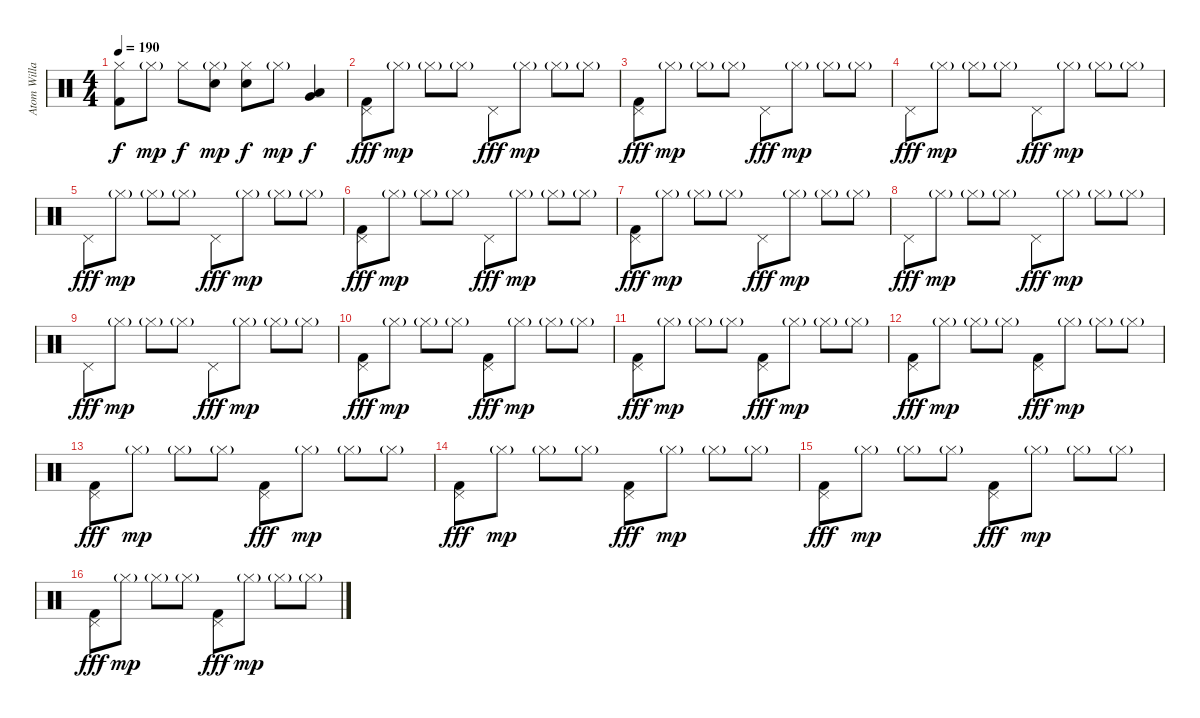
\track ("Atom Willard" "Atom Willa") {instrument percussion}
\staff {score}
\articulation defaults
\ts (4 4)
\tempo 190
\clef neutral
\ks c
("Hi-Hat (closed)" "Kick (hit) 2").8{dy f} "Hi-Hat (closed)"{g}.8{dy mp} "Hi-Hat (closed)".8{dy f} ("Hi-Hat (closed)"{g} "Electric Snare (hit)").8{dy mp} ("Hi-Hat (closed)" "Electric Snare (hit)").8{dy f} "Hi-Hat (closed)"{g}.8{dy mp} ("Very Low Tom (hit)" "Low Floor Tom (hit)").4{dy f} |
("Pedal Hi-Hat (hit)" "Kick (hit) 2").8{dy fff} "Hi-Hat (closed)"{g}.8{dy mp} "Hi-Hat (closed)"{g}.8 "Hi-Hat (closed)"{g}.8 "Pedal Hi-Hat (hit)".8{dy fff} "Hi-Hat (closed)"{g}.8{dy mp} "Hi-Hat (closed)"{g}.8 "Hi-Hat (closed)"{g}.8 |
("Pedal Hi-Hat (hit)" "Kick (hit) 2").8{dy fff} "Hi-Hat (closed)"{g}.8{dy mp} "Hi-Hat (closed)"{g}.8 "Hi-Hat (closed)"{g}.8 "Pedal Hi-Hat (hit)".8{dy fff} "Hi-Hat (closed)"{g}.8{dy mp} "Hi-Hat (closed)"{g}.8 "Hi-Hat (closed)"{g}.8 |
"Pedal Hi-Hat (hit)".8{dy fff} "Hi-Hat (closed)"{g}.8{dy mp} "Hi-Hat (closed)"{g}.8 "Hi-Hat (closed)"{g}.8 "Pedal Hi-Hat (hit)".8{dy fff} "Hi-Hat (closed)"{g}.8{dy mp} "Hi-Hat (closed)"{g}.8 "Hi-Hat (closed)"{g}.8 |
"Pedal Hi-Hat (hit)".8{dy fff} "Hi-Hat (closed)"{g}.8{dy mp} "Hi-Hat (closed)"{g}.8 "Hi-Hat (closed)"{g}.8 "Pedal Hi-Hat (hit)".8{dy fff} "Hi-Hat (closed)"{g}.8{dy mp} "Hi-Hat (closed)"{g}.8 "Hi-Hat (closed)"{g}.8 |
("Pedal Hi-Hat (hit)" "Kick (hit) 2").8{dy fff} "Hi-Hat (closed)"{g}.8{dy mp} "Hi-Hat (closed)"{g}.8 "Hi-Hat (closed)"{g}.8 "Pedal Hi-Hat (hit)".8{dy fff} "Hi-Hat (closed)"{g}.8{dy mp} "Hi-Hat (closed)"{g}.8 "Hi-Hat (closed)"{g}.8 |
("Pedal Hi-Hat (hit)" "Kick (hit) 2").8{dy fff} "Hi-Hat (closed)"{g}.8{dy mp} "Hi-Hat (closed)"{g}.8 "Hi-Hat (closed)"{g}.8 "Pedal Hi-Hat (hit)".8{dy fff} "Hi-Hat (closed)"{g}.8{dy mp} "Hi-Hat (closed)"{g}.8 "Hi-Hat (closed)"{g}.8 |
"Pedal Hi-Hat (hit)".8{dy fff} "Hi-Hat (closed)"{g}.8{dy mp} "Hi-Hat (closed)"{g}.8 "Hi-Hat (closed)"{g}.8 "Pedal Hi-Hat (hit)".8{dy fff} "Hi-Hat (closed)"{g}.8{dy mp} "Hi-Hat (closed)"{g}.8 "Hi-Hat (closed)"{g}.8 |
"Pedal Hi-Hat (hit)".8{dy fff} "Hi-Hat (closed)"{g}.8{dy mp} "Hi-Hat (closed)"{g}.8 "Hi-Hat (closed)"{g}.8 "Pedal Hi-Hat (hit)".8{dy fff} "Hi-Hat (closed)"{g}.8{dy mp} "Hi-Hat (closed)"{g}.8 "Hi-Hat (closed)"{g}.8 |
("Pedal Hi-Hat (hit)" "Kick (hit) 2").8{dy fff} "Hi-Hat (closed)"{g}.8{dy mp} "Hi-Hat (closed)"{g}.8 "Hi-Hat (closed)"{g}.8 ("Pedal Hi-Hat (hit)" "Kick (hit) 2").8{dy fff} "Hi-Hat (closed)"{g}.8{dy mp} "Hi-Hat (closed)"{g}.8 "Hi-Hat (closed)"{g}.8 |
("Pedal Hi-Hat (hit)" "Kick (hit) 2").8{dy fff} "Hi-Hat (closed)"{g}.8{dy mp} "Hi-Hat (closed)"{g}.8 "Hi-Hat (closed)"{g}.8 ("Pedal Hi-Hat (hit)" "Kick (hit) 2").8{dy fff} "Hi-Hat (closed)"{g}.8{dy mp} "Hi-Hat (closed)"{g}.8 "Hi-Hat (closed)"{g}.8 |
("Pedal Hi-Hat (hit)" "Kick (hit) 2").8{dy fff} "Hi-Hat (closed)"{g}.8{dy mp} "Hi-Hat (closed)"{g}.8 "Hi-Hat (closed)"{g}.8 ("Pedal Hi-Hat (hit)" "Kick (hit) 2").8{dy fff} "Hi-Hat (closed)"{g}.8{dy mp} "Hi-Hat (closed)"{g}.8 "Hi-Hat (closed)"{g}.8 |
("Pedal Hi-Hat (hit)" "Kick (hit) 2").8{dy fff} "Hi-Hat (closed)"{g}.8{dy mp} "Hi-Hat (closed)"{g}.8 "Hi-Hat (closed)"{g}.8 ("Pedal Hi-Hat (hit)" "Kick (hit) 2").8{dy fff} "Hi-Hat (closed)"{g}.8{dy mp} "Hi-Hat (closed)"{g}.8 "Hi-Hat (closed)"{g}.8 |
("Pedal Hi-Hat (hit)" "Kick (hit) 2").8{dy fff} "Hi-Hat (closed)"{g}.8{dy mp} "Hi-Hat (closed)"{g}.8 "Hi-Hat (closed)"{g}.8 ("Pedal Hi-Hat (hit)" "Kick (hit) 2").8{dy fff} "Hi-Hat (closed)"{g}.8{dy mp} "Hi-Hat (closed)"{g}.8 "Hi-Hat (closed)"{g}.8 |
("Pedal Hi-Hat (hit)" "Kick (hit) 2").8{dy fff} "Hi-Hat (closed)"{g}.8{dy mp} "Hi-Hat (closed)"{g}.8 "Hi-Hat (closed)"{g}.8 ("Pedal Hi-Hat (hit)" "Kick (hit) 2").8{dy fff} "Hi-Hat (closed)"{g}.8{dy mp} "Hi-Hat (closed)"{g}.8 "Hi-Hat (closed)"{g}.8 |
("Pedal Hi-Hat (hit)" "Kick (hit) 2").8{dy fff} "Hi-Hat (closed)"{g}.8{dy mp} "Hi-Hat (closed)"{g}.8 "Hi-Hat (closed)"{g}.8 ("Pedal Hi-Hat (hit)" "Kick (hit) 2").8{dy fff} "Hi-Hat (closed)"{g}.8{dy mp} "Hi-Hat (closed)"{g}.8 "Hi-Hat (closed)"{g}.8
